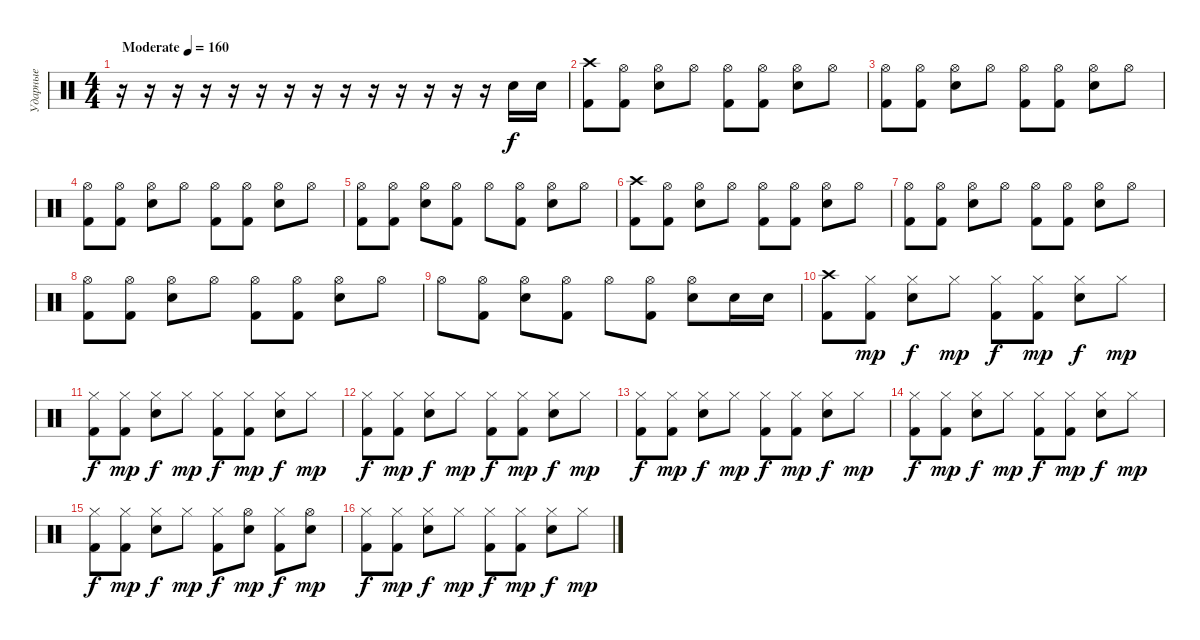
\track ("Ударные" "Ударные") {instrument percussion}
\staff {score}
\articulation defaults
\ts (4 4)
\tempo (160 "Moderate")
\clef neutral
\ks c
r.16{dy f} r.16 r.16 r.16 r.16 r.16 r.16 r.16 r.16 r.16 r.16 r.16 r.16 r.16 "Snare (hit) 2".16 "Snare (hit) 2".16 |
("Crash high (hit)" "Kick (hit) 2").8 ("Hi-Hat (open)" "Kick (hit) 2").8 ("Hi-Hat (open)" "Snare (hit) 2").8 "Hi-Hat (open)".8 ("Hi-Hat (open)" "Kick (hit) 2").8 ("Hi-Hat (open)" "Kick (hit) 2").8 ("Hi-Hat (open)" "Snare (hit) 2").8 "Hi-Hat (open)".8 |
("Hi-Hat (open)" "Kick (hit) 2").8 ("Hi-Hat (open)" "Kick (hit) 2").8 ("Hi-Hat (open)" "Snare (hit) 2").8 "Hi-Hat (open)".8 ("Hi-Hat (open)" "Kick (hit) 2").8 ("Hi-Hat (open)" "Kick (hit) 2").8 ("Hi-Hat (open)" "Snare (hit) 2").8 "Hi-Hat (open)".8 |
("Hi-Hat (open)" "Kick (hit) 2").8 ("Hi-Hat (open)" "Kick (hit) 2").8 ("Hi-Hat (open)" "Snare (hit) 2").8 "Hi-Hat (open)".8 ("Hi-Hat (open)" "Kick (hit) 2").8 ("Hi-Hat (open)" "Kick (hit) 2").8 ("Hi-Hat (open)" "Snare (hit) 2").8 "Hi-Hat (open)".8 |
("Hi-Hat (open)" "Kick (hit) 2").8 ("Hi-Hat (open)" "Kick (hit) 2").8 ("Hi-Hat (open)" "Snare (hit) 2").8 ("Hi-Hat (open)" "Kick (hit) 2").8 "Hi-Hat (open)".8 ("Hi-Hat (open)" "Kick (hit) 2").8 ("Hi-Hat (open)" "Snare (hit) 2").8 "Hi-Hat (open)".8 |
("Crash high (hit)" "Kick (hit) 2").8 ("Hi-Hat (open)" "Kick (hit) 2").8 ("Hi-Hat (open)" "Snare (hit) 2").8 "Hi-Hat (open)".8 ("Hi-Hat (open)" "Kick (hit) 2").8 ("Hi-Hat (open)" "Kick (hit) 2").8 ("Hi-Hat (open)" "Snare (hit) 2").8 "Hi-Hat (open)".8 |
("Hi-Hat (open)" "Kick (hit) 2").8 ("Hi-Hat (open)" "Kick (hit) 2").8 ("Hi-Hat (open)" "Snare (hit) 2").8 "Hi-Hat (open)".8 ("Hi-Hat (open)" "Kick (hit) 2").8 ("Hi-Hat (open)" "Kick (hit) 2").8 ("Hi-Hat (open)" "Snare (hit) 2").8 "Hi-Hat (open)".8 |
("Hi-Hat (open)" "Kick (hit) 2").8 ("Hi-Hat (open)" "Kick (hit) 2").8 ("Hi-Hat (open)" "Snare (hit) 2").8 "Hi-Hat (open)".8 ("Hi-Hat (open)" "Kick (hit) 2").8 ("Hi-Hat (open)" "Kick (hit) 2").8 ("Hi-Hat (open)" "Snare (hit) 2").8 "Hi-Hat (open)".8 |
"Hi-Hat (open)".8 ("Hi-Hat (open)" "Kick (hit) 2").8 ("Hi-Hat (open)" "Snare (hit) 2").8 ("Hi-Hat (open)" "Kick (hit) 2").8 "Hi-Hat (open)".8 ("Hi-Hat (open)" "Kick (hit) 2").8 ("Hi-Hat (open)" "Snare (hit) 2").8 "Snare (hit) 2".16 "Snare (hit) 2".16 |
("Crash high (hit)" "Kick (hit) 2").8 ("Hi-Hat (closed)" "Kick (hit) 2").8{dy mp} ("Hi-Hat (closed)" "Snare (hit) 2").8{dy f} "Hi-Hat (closed)".8{dy mp} ("Hi-Hat (closed)" "Kick (hit) 2").8{dy f} ("Hi-Hat (closed)" "Kick (hit) 2").8{dy mp} ("Hi-Hat (closed)" "Snare (hit) 2").8{dy f} "Hi-Hat (closed)".8{dy mp} |
("Hi-Hat (closed)" "Kick (hit) 2").8{dy f} ("Hi-Hat (closed)" "Kick (hit) 2").8{dy mp} ("Hi-Hat (closed)" "Snare (hit) 2").8{dy f} "Hi-Hat (closed)".8{dy mp} ("Hi-Hat (closed)" "Kick (hit) 2").8{dy f} ("Hi-Hat (closed)" "Kick (hit) 2").8{dy mp} ("Hi-Hat (closed)" "Snare (hit) 2").8{dy f} "Hi-Hat (closed)".8{dy mp} |
("Hi-Hat (closed)" "Kick (hit) 2").8{dy f} ("Hi-Hat (closed)" "Kick (hit) 2").8{dy mp} ("Hi-Hat (closed)" "Snare (hit) 2").8{dy f} "Hi-Hat (closed)".8{dy mp} ("Hi-Hat (closed)" "Kick (hit) 2").8{dy f} ("Hi-Hat (closed)" "Kick (hit) 2").8{dy mp} ("Hi-Hat (closed)" "Snare (hit) 2").8{dy f} "Hi-Hat (closed)".8{dy mp} |
("Hi-Hat (closed)" "Kick (hit) 2").8{dy f} ("Hi-Hat (closed)" "Kick (hit) 2").8{dy mp} ("Hi-Hat (closed)" "Snare (hit) 2").8{dy f} "Hi-Hat (closed)".8{dy mp} ("Hi-Hat (closed)" "Kick (hit) 2").8{dy f} ("Hi-Hat (closed)" "Kick (hit) 2").8{dy mp} ("Hi-Hat (closed)" "Snare (hit) 2").8{dy f} "Hi-Hat (closed)".8{dy mp} |
("Hi-Hat (closed)" "Kick (hit) 2").8{dy f} ("Hi-Hat (closed)" "Kick (hit) 2").8{dy mp} ("Hi-Hat (closed)" "Snare (hit) 2").8{dy f} "Hi-Hat (closed)".8{dy mp} ("Hi-Hat (closed)" "Kick (hit) 2").8{dy f} ("Hi-Hat (closed)" "Kick (hit) 2").8{dy mp} ("Hi-Hat (closed)" "Snare (hit) 2").8{dy f} "Hi-Hat (closed)".8{dy mp} |
("Hi-Hat (closed)" "Kick (hit) 2").8{dy f} ("Hi-Hat (closed)" "Kick (hit) 2").8{dy mp} ("Hi-Hat (closed)" "Snare (hit) 2").8{dy f} "Hi-Hat (closed)".8{dy mp} ("Hi-Hat (closed)" "Kick (hit) 2").8{dy f} ("Hi-Hat (open)" "Snare (hit) 2").8{dy mp} ("Hi-Hat (closed)" "Kick (hit) 2").8{dy f} ("Hi-Hat (open)" "Snare (hit) 2").8{dy mp} |
("Hi-Hat (closed)" "Kick (hit) 2").8{dy f} ("Hi-Hat (closed)" "Kick (hit) 2").8{dy mp} ("Hi-Hat (closed)" "Snare (hit) 2").8{dy f} "Hi-Hat (closed)".8{dy mp} ("Hi-Hat (closed)" "Kick (hit) 2").8{dy f} ("Hi-Hat (closed)" "Kick (hit) 2").8{dy mp} ("Hi-Hat (closed)" "Snare (hit) 2").8{dy f} "Hi-Hat (closed)".8{dy mp}
